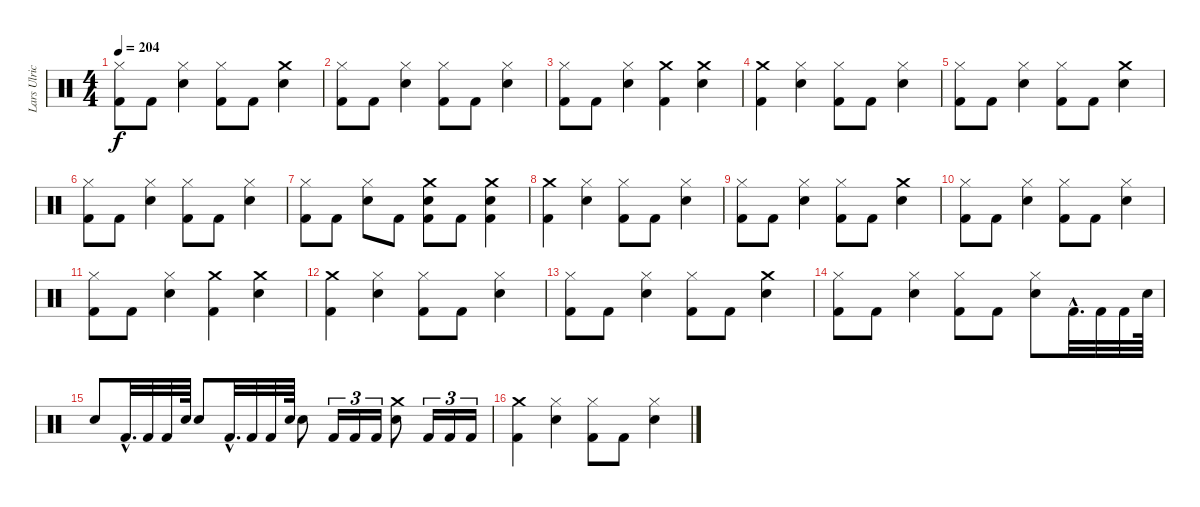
\track ("Lars Ulrich (Drums)" "Lars Ulric") {instrument percussion}
\staff {score}
\articulation defaults
\ts (4 4)
\tempo 204
\clef neutral
\ks c
("Hi-Hat (closed)" "Kick (hit) 2").8{dy f} "Kick (hit) 2".8 ("Snare (hit) 2" "Hi-Hat (closed)").4 ("Hi-Hat (closed)" "Kick (hit) 2").8 "Kick (hit) 2".8 ("Crash medium (hit)" "Snare (hit) 2").4 |
("Hi-Hat (closed)" "Kick (hit) 2").8 "Kick (hit) 2".8 ("Snare (hit) 2" "Hi-Hat (closed)").4 ("Hi-Hat (closed)" "Kick (hit) 2").8 "Kick (hit) 2".8 ("Snare (hit) 2" "Hi-Hat (closed)").4 |
("Hi-Hat (closed)" "Kick (hit) 2").8 "Kick (hit) 2".8 ("Snare (hit) 2" "Hi-Hat (closed)").4 ("Crash medium (hit)" "Kick (hit) 2").4 ("Crash medium (hit)" "Snare (hit) 2").4 |
("Kick (hit) 2" "Crash medium (hit)").4 ("Hi-Hat (closed)" "Snare (hit) 2").4 ("Hi-Hat (closed)" "Kick (hit) 2").8 "Kick (hit) 2".8 ("Snare (hit) 2" "Hi-Hat (closed)").4 |
("Hi-Hat (closed)" "Kick (hit) 2").8 "Kick (hit) 2".8 ("Snare (hit) 2" "Hi-Hat (closed)").4 ("Hi-Hat (closed)" "Kick (hit) 2").8 "Kick (hit) 2".8 ("Crash medium (hit)" "Snare (hit) 2").4 |
("Hi-Hat (closed)" "Kick (hit) 2").8 "Kick (hit) 2".8 ("Snare (hit) 2" "Hi-Hat (closed)").4 ("Hi-Hat (closed)" "Kick (hit) 2").8 "Kick (hit) 2".8 ("Snare (hit) 2" "Hi-Hat (closed)").4 |
("Hi-Hat (closed)" "Kick (hit) 2").8 "Kick (hit) 2".8 ("Snare (hit) 2" "Hi-Hat (closed)").8 "Kick (hit) 2".8 ("Snare (hit) 2" "Crash medium (hit)" "Kick (hit) 2").8 "Kick (hit) 2".8 ("Kick (hit) 2" "Crash medium (hit)" "Snare (hit) 2").4 |
("Kick (hit) 2" "Crash medium (hit)").4 ("Hi-Hat (closed)" "Snare (hit) 2").4 ("Hi-Hat (closed)" "Kick (hit) 2").8 "Kick (hit) 2".8 ("Snare (hit) 2" "Hi-Hat (closed)").4 |
("Hi-Hat (closed)" "Kick (hit) 2").8 "Kick (hit) 2".8 ("Snare (hit) 2" "Hi-Hat (closed)").4 ("Hi-Hat (closed)" "Kick (hit) 2").8 "Kick (hit) 2".8 ("Crash medium (hit)" "Snare (hit) 2").4 |
("Hi-Hat (closed)" "Kick (hit) 2").8 "Kick (hit) 2".8 ("Snare (hit) 2" "Hi-Hat (closed)").4 ("Hi-Hat (closed)" "Kick (hit) 2").8 "Kick (hit) 2".8 ("Snare (hit) 2" "Hi-Hat (closed)").4 |
("Hi-Hat (closed)" "Kick (hit) 2").8 "Kick (hit) 2".8 ("Snare (hit) 2" "Hi-Hat (closed)").4 ("Crash medium (hit)" "Kick (hit) 2").4 ("Crash medium (hit)" "Snare (hit) 2").4 |
("Kick (hit) 2" "Crash medium (hit)").4 ("Hi-Hat (closed)" "Snare (hit) 2").4 ("Hi-Hat (closed)" "Kick (hit) 2").8 "Kick (hit) 2".8 ("Snare (hit) 2" "Hi-Hat (closed)").4 |
("Hi-Hat (closed)" "Kick (hit) 2").8 "Kick (hit) 2".8 ("Snare (hit) 2" "Hi-Hat (closed)").4 ("Hi-Hat (closed)" "Kick (hit) 2").8 "Kick (hit) 2".8 ("Crash medium (hit)" "Snare (hit) 2").4 |
("Hi-Hat (closed)" "Kick (hit) 2").8 "Kick (hit) 2".8 ("Snare (hit) 2" "Hi-Hat (closed)").4 ("Hi-Hat (closed)" "Kick (hit) 2").8 "Kick (hit) 2".8 ("Snare (hit) 2" "Hi-Hat (closed)").8 "Kick (hit) 2"{hac}.32{d} "Kick (hit) 2".32 "Kick (hit) 2".32 "Snare (hit) 2".64 |
"Snare (hit) 2".8 "Kick (hit) 2"{hac}.32{d} "Kick (hit) 2".32 "Kick (hit) 2".32 "Snare (hit) 2".64 "Snare (hit) 2".8 "Kick (hit) 2"{hac}.32{d} "Kick (hit) 2".32 "Kick (hit) 2".32 "Snare (hit) 2".64 "Snare (hit) 2".8 "Kick (hit) 2".16{tu (3 2)} "Kick (hit) 2".16{tu (3 2)} "Kick (hit) 2".16{tu (3 2)} ("Crash medium (hit)" "Snare (hit) 2").8 "Kick (hit) 2".16{tu (3 2)} "Kick (hit) 2".16{tu (3 2)} "Kick (hit) 2".16{tu (3 2)} |
("Kick (hit) 2" "Crash medium (hit)").4 ("Hi-Hat (closed)" "Snare (hit) 2").4 ("Hi-Hat (closed)" "Kick (hit) 2").8 "Kick (hit) 2".8 ("Snare (hit) 2" "Hi-Hat (closed)").4
